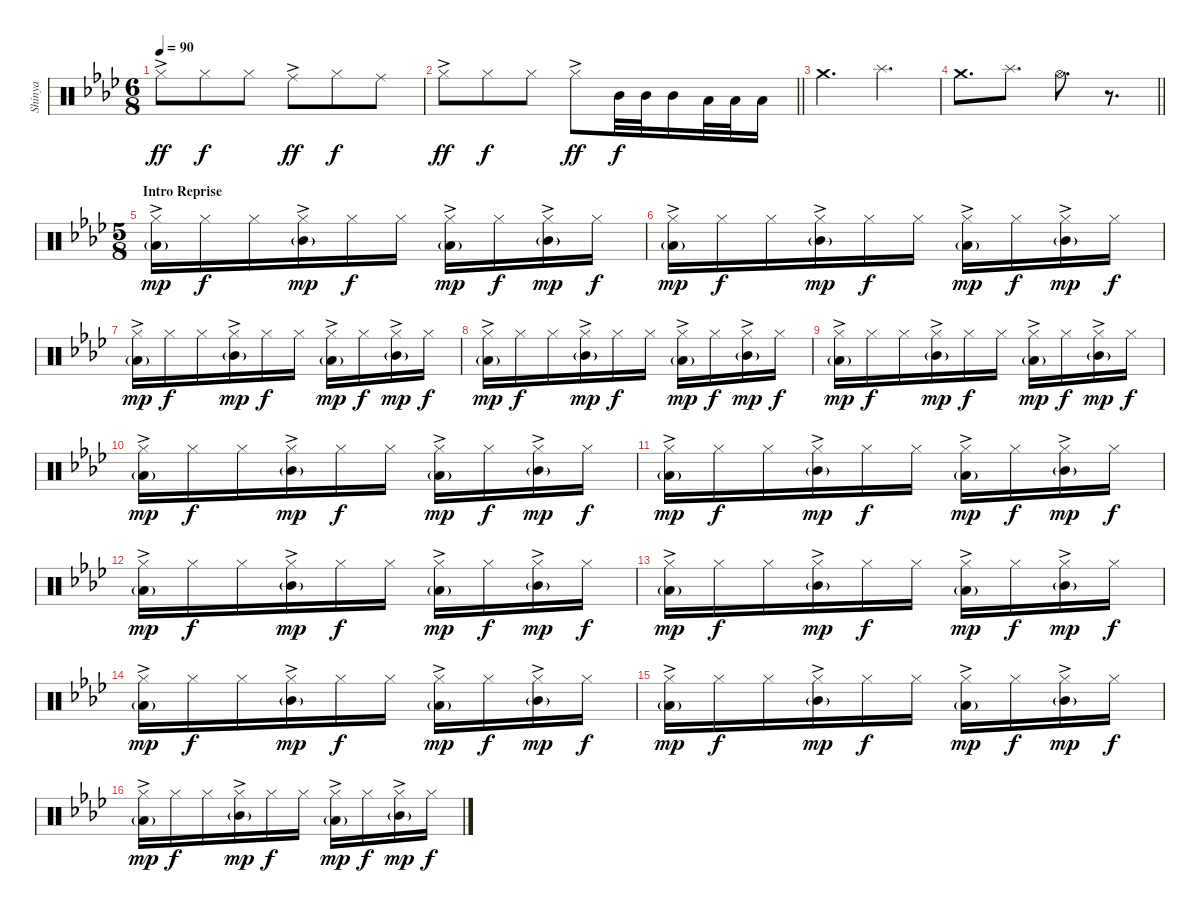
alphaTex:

\track ("Shinya" "Shinya") {instrument percussion}
\staff {score}
\articulation defaults
\ts (6 8)
\tempo 90
\clef neutral
\ks fminor "Hi-Hat (closed)"{ac}.8{dy ff} "Hi-Hat (closed)".8{dy f} "Hi-Hat (closed)".8 "Ride (middle)"{ac}.8{dy ff} "Hi-Hat (closed)".8{dy f} "Ride (middle)".8
|
\barLineRight lightlight "Hi-Hat (closed)"{ac}.8{dy ff} "Hi-Hat (closed)".8{dy f} "Hi-Hat (closed)".8 "Hi-Hat (closed)"{ac}.8{dy ff} "Mid Tom (hit)".32{dy f} "Mid Tom (hit)".32 "Mid Tom (hit)".16 "Low Tom (hit)".32 "Low Tom (hit)".32 "Low Tom (hit)".16
|
"Crash medium (hit)".4{d} "Splash (hit)".4{d} |
\barLineRight lightlight "Crash medium (hit)".8{d} "Splash (hit)".8{d} "Hi-Hat (open)".8{d}
r.8{d} |
\ts (5 8)
\section ("" "Intro Reprise")
("Hi-Hat (closed)"{ac} "Low Tom (hit)"{g}).16{dy mp} "Hi-Hat (closed)".16{dy f} "Hi-Hat (closed)".16 ("Hi-Hat (closed)"{ac} "Mid Tom (hit)"{g}).16{dy mp} "Hi-Hat (closed)".16{dy f} "Hi-Hat (closed)".16 ("Hi-Hat (closed)"{ac} "Low Tom (hit)"{g}).16{dy mp} "Hi-Hat (closed)".16{dy f} ("Hi-Hat (closed)"{ac} "Mid Tom (hit)"{g}).16{dy mp} "Hi-Hat (closed)".16{dy f} |
("Hi-Hat (closed)"{ac} "Low Tom (hit)"{g}).16{dy mp} "Hi-Hat (closed)".16{dy f} "Hi-Hat (closed)".16 ("Hi-Hat (closed)"{ac} "Mid Tom (hit)"{g}).16{dy mp} "Hi-Hat (closed)".16{dy f} "Hi-Hat (closed)".16 ("Hi-Hat (closed)"{ac} "Low Tom (hit)"{g}).16{dy mp} "Hi-Hat (closed)".16{dy f} ("Hi-Hat (closed)"{ac} "Mid Tom (hit)"{g}).16{dy mp} "Hi-Hat (closed)".16{dy f} |
("Hi-Hat (closed)"{ac} "Low Tom (hit)"{g}).16{dy mp} "Hi-Hat (closed)".16{dy f} "Hi-Hat (closed)".16 ("Hi-Hat (closed)"{ac} "Mid Tom (hit)"{g}).16{dy mp} "Hi-Hat (closed)".16{dy f} "Hi-Hat (closed)".16 ("Hi-Hat (closed)"{ac} "Low Tom (hit)"{g}).16{dy mp} "Hi-Hat (closed)".16{dy f} ("Hi-Hat (closed)"{ac} "Mid Tom (hit)"{g}).16{dy mp} "Hi-Hat (closed)".16{dy f} |
("Hi-Hat (closed)"{ac} "Low Tom (hit)"{g}).16{dy mp} "Hi-Hat (closed)".16{dy f} "Hi-Hat (closed)".16 ("Hi-Hat (closed)"{ac} "Mid Tom (hit)"{g}).16{dy mp} "Hi-Hat (closed)".16{dy f} "Hi-Hat (closed)".16 ("Hi-Hat (closed)"{ac} "Low Tom (hit)"{g}).16{dy mp} "Hi-Hat (closed)".16{dy f} ("Hi-Hat (closed)"{ac} "Mid Tom (hit)"{g}).16{dy mp} "Hi-Hat (closed)".16{dy f} |
("Hi-Hat (closed)"{ac} "Low Tom (hit)"{g}).16{dy mp} "Hi-Hat (closed)".16{dy f} "Hi-Hat (closed)".16 ("Hi-Hat (closed)"{ac} "Mid Tom (hit)"{g}).16{dy mp} "Hi-Hat (closed)".16{dy f} "Hi-Hat (closed)".16 ("Hi-Hat (closed)"{ac} "Low Tom (hit)"{g}).16{dy mp} "Hi-Hat (closed)".16{dy f} ("Hi-Hat (closed)"{ac} "Mid Tom (hit)"{g}).16{dy mp} "Hi-Hat (closed)".16{dy f} |
("Hi-Hat (closed)"{ac} "Low Tom (hit)"{g}).16{dy mp} "Hi-Hat (closed)".16{dy f} "Hi-Hat (closed)".16 ("Hi-Hat (closed)"{ac} "Mid Tom (hit)"{g}).16{dy mp} "Hi-Hat (closed)".16{dy f} "Hi-Hat (closed)".16 ("Hi-Hat (closed)"{ac} "Low Tom (hit)"{g}).16{dy mp} "Hi-Hat (closed)".16{dy f} ("Hi-Hat (closed)"{ac} "Mid Tom (hit)"{g}).16{dy mp} "Hi-Hat (closed)".16{dy f} |
("Hi-Hat (closed)"{ac} "Low Tom (hit)"{g}).16{dy mp} "Hi-Hat (closed)".16{dy f} "Hi-Hat (closed)".16 ("Hi-Hat (closed)"{ac} "Mid Tom (hit)"{g}).16{dy mp} "Hi-Hat (closed)".16{dy f} "Hi-Hat (closed)".16 ("Hi-Hat (closed)"{ac} "Low Tom (hit)"{g}).16{dy mp} "Hi-Hat (closed)".16{dy f} ("Hi-Hat (closed)"{ac} "Mid Tom (hit)"{g}).16{dy mp} "Hi-Hat (closed)".16{dy f} |
("Hi-Hat (closed)"{ac} "Low Tom (hit)"{g}).16{dy mp} "Hi-Hat (closed)".16{dy f} "Hi-Hat (closed)".16 ("Hi-Hat (closed)"{ac} "Mid Tom (hit)"{g}).16{dy mp} "Hi-Hat (closed)".16{dy f} "Hi-Hat (closed)".16 ("Hi-Hat (closed)"{ac} "Low Tom (hit)"{g}).16{dy mp} "Hi-Hat (closed)".16{dy f} ("Hi-Hat (closed)"{ac} "Mid Tom (hit)"{g}).16{dy mp} "Hi-Hat (closed)".16{dy f} |
("Hi-Hat (closed)"{ac} "Low Tom (hit)"{g}).16{dy mp} "Hi-Hat (closed)".16{dy f} "Hi-Hat (closed)".16 ("Hi-Hat (closed)"{ac} "Mid Tom (hit)"{g}).16{dy mp} "Hi-Hat (closed)".16{dy f} "Hi-Hat (closed)".16 ("Hi-Hat (closed)"{ac} "Low Tom (hit)"{g}).16{dy mp} "Hi-Hat (closed)".16{dy f} ("Hi-Hat (closed)"{ac} "Mid Tom (hit)"{g}).16{dy mp} "Hi-Hat (closed)".16{dy f} |
("Hi-Hat (closed)"{ac} "Low Tom (hit)"{g}).16{dy mp} "Hi-Hat (closed)".16{dy f} "Hi-Hat (closed)".16 ("Hi-Hat (closed)"{ac} "Mid Tom (hit)"{g}).16{dy mp} "Hi-Hat (closed)".16{dy f} "Hi-Hat (closed)".16 ("Hi-Hat (closed)"{ac} "Low Tom (hit)"{g}).16{dy mp} "Hi-Hat (closed)".16{dy f} ("Hi-Hat (closed)"{ac} "Mid Tom (hit)"{g}).16{dy mp} "Hi-Hat (closed)".16{dy f} |
("Hi-Hat (closed)"{ac} "Low Tom (hit)"{g}).16{dy mp} "Hi-Hat (closed)".16{dy f} "Hi-Hat (closed)".16 ("Hi-Hat (closed)"{ac} "Mid Tom (hit)"{g}).16{dy mp} "Hi-Hat (closed)".16{dy f} "Hi-Hat (closed)".16 ("Hi-Hat (closed)"{ac} "Low Tom (hit)"{g}).16{dy mp} "Hi-Hat (closed)".16{dy f} ("Hi-Hat (closed)"{ac} "Mid Tom (hit)"{g}).16{dy mp} "Hi-Hat (closed)".16{dy f} |
("Hi-Hat (closed)"{ac} "Low Tom (hit)"{g}).16{dy mp} "Hi-Hat (closed)".16{dy f} "Hi-Hat (closed)".16 ("Hi-Hat (closed)"{ac} "Mid Tom (hit)"{g}).16{dy mp} "Hi-Hat (closed)".16{dy f} "Hi-Hat (closed)".16 ("Hi-Hat (closed)"{ac} "Low Tom (hit)"{g}).16{dy mp} "Hi-Hat (closed)".16{dy f} ("Hi-Hat (closed)"{ac} "Mid Tom (hit)"{g}).16{dy mp} "Hi-Hat (closed)".16{dy f}
